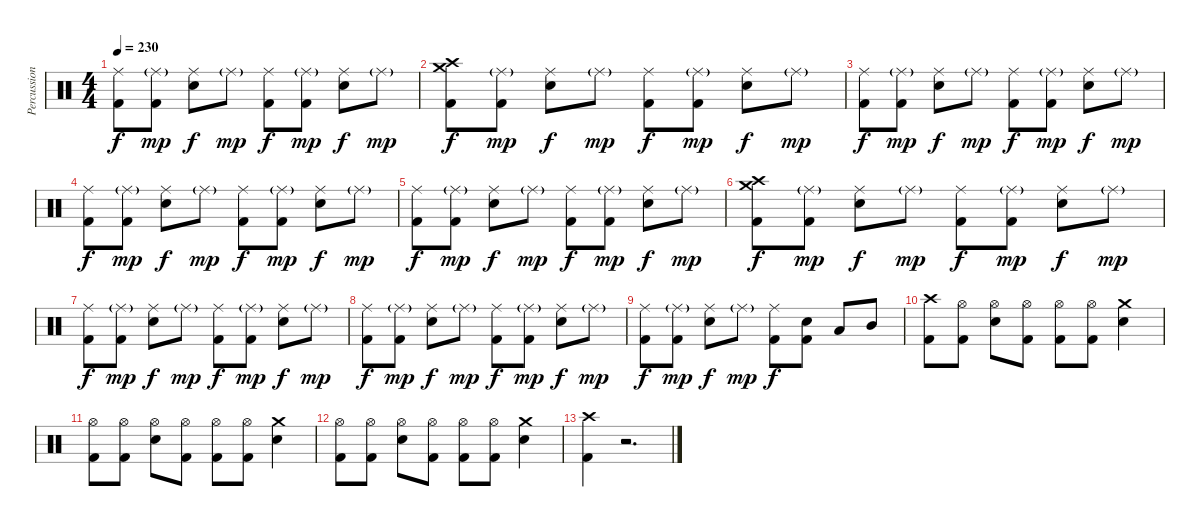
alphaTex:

\track ("Percussion" "Percussion") {instrument percussion}
\staff {score}
\articulation defaults
\ts (4 4)
\tempo 230
\clef neutral
\ks c
("Ride (middle)" "Kick (hit) 2").8{dy f} ("Ride (middle)"{g} "Kick (hit) 2").8{dy mp} ("Ride (middle)" "Snare (hit) 2").8{dy f} "Ride (middle)"{g}.8{dy mp} ("Ride (middle)" "Kick (hit) 2").8{dy f} ("Ride (middle)"{g} "Kick (hit) 2").8{dy mp} ("Ride (middle)" "Snare (hit) 2").8{dy f} "Ride (middle)"{g}.8{dy mp} |
("Crash medium (hit)" "Crash high (hit)" "Kick (hit) 2").8{dy f} ("Ride (middle)"{g} "Kick (hit) 2").8{dy mp} ("Ride (middle)" "Snare (hit) 2").8{dy f} "Ride (middle)"{g}.8{dy mp} ("Ride (middle)" "Kick (hit) 2").8{dy f} ("Ride (middle)"{g} "Kick (hit) 2").8{dy mp} ("Ride (middle)" "Snare (hit) 2").8{dy f} "Ride (middle)"{g}.8{dy mp} |
("Ride (middle)" "Kick (hit) 2").8{dy f} ("Ride (middle)"{g} "Kick (hit) 2").8{dy mp} ("Ride (middle)" "Snare (hit) 2").8{dy f} "Ride (middle)"{g}.8{dy mp} ("Ride (middle)" "Kick (hit) 2").8{dy f} ("Ride (middle)"{g} "Kick (hit) 2").8{dy mp} ("Ride (middle)" "Snare (hit) 2").8{dy f} "Ride (middle)"{g}.8{dy mp} |
("Ride (middle)" "Kick (hit) 2").8{dy f} ("Ride (middle)"{g} "Kick (hit) 2").8{dy mp} ("Ride (middle)" "Snare (hit) 2").8{dy f} "Ride (middle)"{g}.8{dy mp} ("Ride (middle)" "Kick (hit) 2").8{dy f} ("Ride (middle)"{g} "Kick (hit) 2").8{dy mp} ("Ride (middle)" "Snare (hit) 2").8{dy f} "Ride (middle)"{g}.8{dy mp} |
("Ride (middle)" "Kick (hit) 2").8{dy f} ("Ride (middle)"{g} "Kick (hit) 2").8{dy mp} ("Ride (middle)" "Snare (hit) 2").8{dy f} "Ride (middle)"{g}.8{dy mp} ("Ride (middle)" "Kick (hit) 2").8{dy f} ("Ride (middle)"{g} "Kick (hit) 2").8{dy mp} ("Ride (middle)" "Snare (hit) 2").8{dy f} "Ride (middle)"{g}.8{dy mp} |
("Crash medium (hit)" "Crash high (hit)" "Kick (hit) 2").8{dy f} ("Ride (middle)"{g} "Kick (hit) 2").8{dy mp} ("Ride (middle)" "Snare (hit) 2").8{dy f} "Ride (middle)"{g}.8{dy mp} ("Ride (middle)" "Kick (hit) 2").8{dy f} ("Ride (middle)"{g} "Kick (hit) 2").8{dy mp} ("Ride (middle)" "Snare (hit) 2").8{dy f} "Ride (middle)"{g}.8{dy mp} |
("Ride (middle)" "Kick (hit) 2").8{dy f} ("Ride (middle)"{g} "Kick (hit) 2").8{dy mp} ("Ride (middle)" "Snare (hit) 2").8{dy f} "Ride (middle)"{g}.8{dy mp} ("Ride (middle)" "Kick (hit) 2").8{dy f} ("Ride (middle)"{g} "Kick (hit) 2").8{dy mp} ("Ride (middle)" "Snare (hit) 2").8{dy f} "Ride (middle)"{g}.8{dy mp} |
("Ride (middle)" "Kick (hit) 2").8{dy f} ("Ride (middle)"{g} "Kick (hit) 2").8{dy mp} ("Ride (middle)" "Snare (hit) 2").8{dy f} "Ride (middle)"{g}.8{dy mp} ("Ride (middle)" "Kick (hit) 2").8{dy f} ("Ride (middle)"{g} "Kick (hit) 2").8{dy mp} ("Ride (middle)" "Snare (hit) 2").8{dy f} "Ride (middle)"{g}.8{dy mp} |
("Ride (middle)" "Kick (hit) 2").8{dy f} ("Ride (middle)"{g} "Kick (hit) 2").8{dy mp} ("Ride (middle)" "Snare (hit) 2").8{dy f} "Ride (middle)"{g}.8{dy mp} ("Ride (middle)" "Kick (hit) 2").8{dy f} ("Snare (hit) 2" "Kick (hit) 2").8 "Low Tom (hit)".8 "Mid Tom (hit)".8 |
("Crash high (hit)" "Kick (hit) 2").8 ("Hi-Hat (open)" "Kick (hit) 2").8 ("Hi-Hat (open)" "Snare (hit) 2").8 ("Hi-Hat (open)" "Kick (hit) 2").8 ("Hi-Hat (open)" "Kick (hit) 2").8 ("Hi-Hat (open)" "Kick (hit) 2").8 ("Crash medium (hit)" "Snare (hit) 2").4 |
("Hi-Hat (open)" "Kick (hit) 2").8 ("Hi-Hat (open)" "Kick (hit) 2").8 ("Hi-Hat (open)" "Snare (hit) 2").8 ("Hi-Hat (open)" "Kick (hit) 2").8 ("Hi-Hat (open)" "Kick (hit) 2").8 ("Hi-Hat (open)" "Kick (hit) 2").8 ("Crash medium (hit)" "Snare (hit) 2").4 |
("Hi-Hat (open)" "Kick (hit) 2").8 ("Hi-Hat (open)" "Kick (hit) 2").8 ("Hi-Hat (open)" "Snare (hit) 2").8 ("Hi-Hat (open)" "Kick (hit) 2").8 ("Hi-Hat (open)" "Kick (hit) 2").8 ("Hi-Hat (open)" "Kick (hit) 2").8 ("Crash medium (hit)" "Snare (hit) 2").4 |
("Crash high (hit)" "Kick (hit) 2").4 r.2{d}
